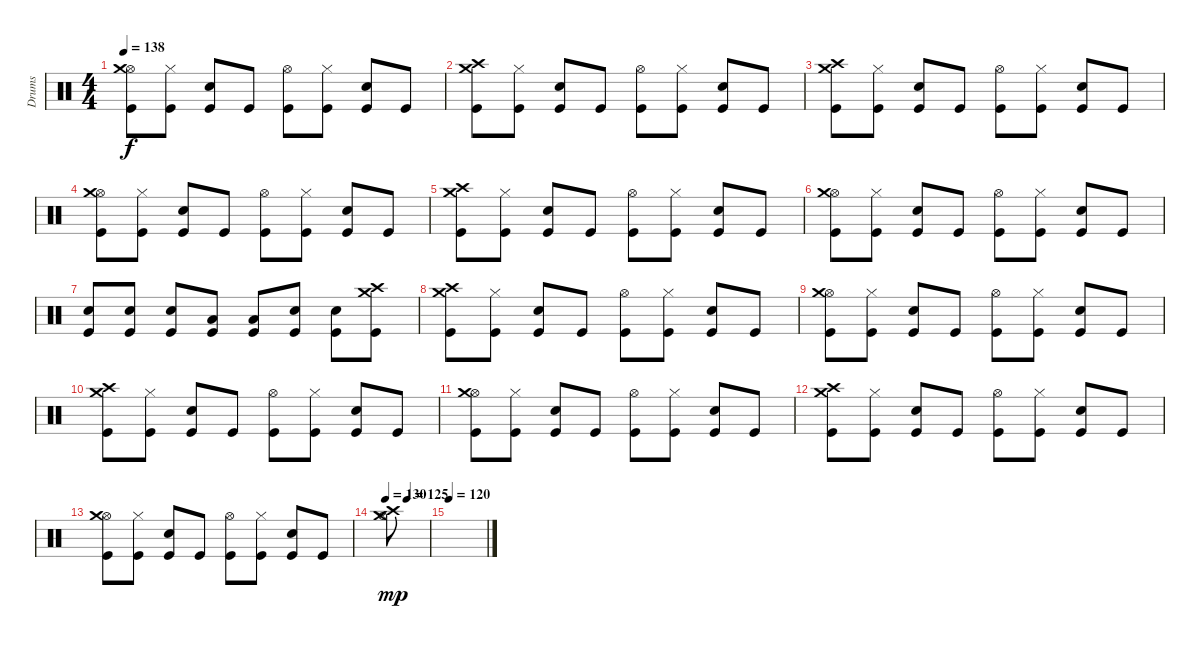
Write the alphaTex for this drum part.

\track ("Drums" "Drums") {instrument percussion}
\staff {score}
\articulation defaults
\ts (4 4)
\tempo 138
\clef neutral
\ks c
("Kick (hit)" "Hi-Hat (open)" "Crash medium (hit)").8{dy f} ("Hi-Hat (closed)" "Kick (hit)").8 ("Electric Snare (hit)" "Kick (hit)").8 "Kick (hit)".8 ("Hi-Hat (open)" "Kick (hit)").8 ("Hi-Hat (closed)" "Kick (hit)").8 ("Electric Snare (hit)" "Kick (hit)").8 "Kick (hit)".8 |
("Kick (hit)" "Crash high (hit)" "Crash medium (hit)").8 ("Hi-Hat (closed)" "Kick (hit)").8 ("Electric Snare (hit)" "Kick (hit)").8 "Kick (hit)".8 ("Hi-Hat (open)" "Kick (hit)").8 ("Hi-Hat (closed)" "Kick (hit)").8 ("Electric Snare (hit)" "Kick (hit)").8 "Kick (hit)".8 |
("Kick (hit)" "Crash high (hit)" "Crash medium (hit)").8 ("Hi-Hat (closed)" "Kick (hit)").8 ("Electric Snare (hit)" "Kick (hit)").8 "Kick (hit)".8 ("Hi-Hat (open)" "Kick (hit)").8 ("Hi-Hat (closed)" "Kick (hit)").8 ("Electric Snare (hit)" "Kick (hit)").8 "Kick (hit)".8 |
("Kick (hit)" "Hi-Hat (open)" "Crash medium (hit)").8 ("Hi-Hat (closed)" "Kick (hit)").8 ("Electric Snare (hit)" "Kick (hit)").8 "Kick (hit)".8 ("Hi-Hat (open)" "Kick (hit)").8 ("Hi-Hat (closed)" "Kick (hit)").8 ("Electric Snare (hit)" "Kick (hit)").8 "Kick (hit)".8 |
("Kick (hit)" "Crash high (hit)" "Crash medium (hit)").8 ("Hi-Hat (closed)" "Kick (hit)").8 ("Electric Snare (hit)" "Kick (hit)").8 "Kick (hit)".8 ("Hi-Hat (open)" "Kick (hit)").8 ("Hi-Hat (closed)" "Kick (hit)").8 ("Electric Snare (hit)" "Kick (hit)").8 "Kick (hit)".8 |
("Kick (hit)" "Hi-Hat (open)" "Crash medium (hit)").8 ("Hi-Hat (closed)" "Kick (hit)").8 ("Electric Snare (hit)" "Kick (hit)").8 "Kick (hit)".8 ("Hi-Hat (open)" "Kick (hit)").8 ("Hi-Hat (closed)" "Kick (hit)").8 ("Electric Snare (hit)" "Kick (hit)").8 "Kick (hit)".8 |
("Electric Snare (hit)" "Kick (hit)").8 ("Electric Snare (hit)" "Kick (hit)").8 ("Electric Snare (hit)" "Kick (hit)").8 ("Low Floor Tom (hit)" "Kick (hit)").8 ("Low Floor Tom (hit)" "Kick (hit)").8 ("Electric Snare (hit)" "Kick (hit)").8 ("Electric Snare (hit)" "Kick (hit)").8 ("Kick (hit)" "Crash high (hit)" "Crash medium (hit)").8 |
("Kick (hit)" "Crash high (hit)" "Crash medium (hit)").8 ("Hi-Hat (closed)" "Kick (hit)").8 ("Electric Snare (hit)" "Kick (hit)").8 "Kick (hit)".8 ("Hi-Hat (open)" "Kick (hit)").8 ("Hi-Hat (closed)" "Kick (hit)").8 ("Electric Snare (hit)" "Kick (hit)").8 "Kick (hit)".8 |
("Kick (hit)" "Hi-Hat (open)" "Crash medium (hit)").8 ("Hi-Hat (closed)" "Kick (hit)").8 ("Electric Snare (hit)" "Kick (hit)").8 "Kick (hit)".8 ("Hi-Hat (open)" "Kick (hit)").8 ("Hi-Hat (closed)" "Kick (hit)").8 ("Electric Snare (hit)" "Kick (hit)").8 "Kick (hit)".8 |
("Kick (hit)" "Crash high (hit)" "Crash medium (hit)").8 ("Hi-Hat (closed)" "Kick (hit)").8 ("Electric Snare (hit)" "Kick (hit)").8 "Kick (hit)".8 ("Hi-Hat (open)" "Kick (hit)").8 ("Hi-Hat (closed)" "Kick (hit)").8 ("Electric Snare (hit)" "Kick (hit)").8 "Kick (hit)".8 |
("Kick (hit)" "Hi-Hat (open)" "Crash medium (hit)").8 ("Hi-Hat (closed)" "Kick (hit)").8 ("Electric Snare (hit)" "Kick (hit)").8 "Kick (hit)".8 ("Hi-Hat (open)" "Kick (hit)").8 ("Hi-Hat (closed)" "Kick (hit)").8 ("Electric Snare (hit)" "Kick (hit)").8 "Kick (hit)".8 |
("Kick (hit)" "Crash high (hit)" "Crash medium (hit)").8 ("Hi-Hat (closed)" "Kick (hit)").8 ("Electric Snare (hit)" "Kick (hit)").8 "Kick (hit)".8 ("Hi-Hat (open)" "Kick (hit)").8 ("Hi-Hat (closed)" "Kick (hit)").8 ("Electric Snare (hit)" "Kick (hit)").8 "Kick (hit)".8 |
("Kick (hit)" "Hi-Hat (open)" "Crash medium (hit)").8 ("Hi-Hat (closed)" "Kick (hit)").8 ("Electric Snare (hit)" "Kick (hit)").8 "Kick (hit)".8 ("Hi-Hat (open)" "Kick (hit)").8 ("Hi-Hat (closed)" "Kick (hit)").8 ("Electric Snare (hit)" "Kick (hit)").8 "Kick (hit)".8 |
\tempo 130
\tempo (125 0.5)
("Crash medium (hit)" "Hi-Hat (open)" "Crash high (hit)").8{dy mp} |
\tempo 120
